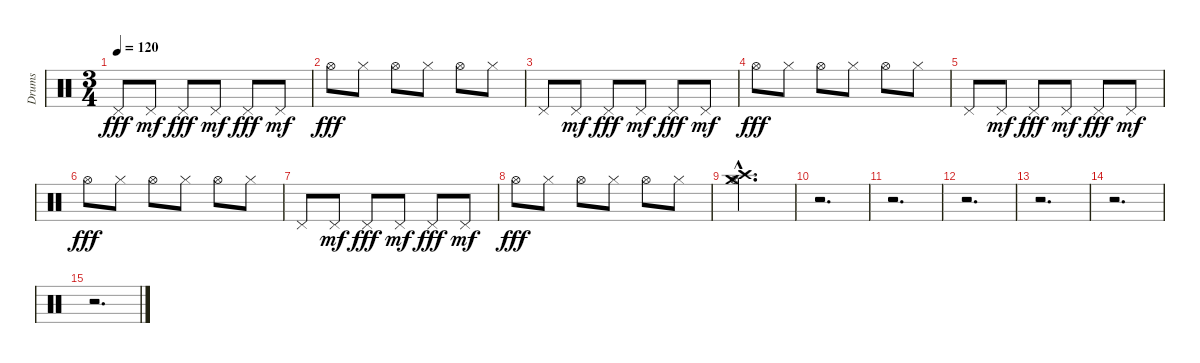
\track ("Drums" "Drums") {instrument percussion}
\staff {score}
\articulation defaults
\ts (3 4)
\tempo 120
\clef neutral
\ks c "Pedal Hi-Hat (hit)".8{dy fff} "Pedal Hi-Hat (hit)".8{dy mf} "Pedal Hi-Hat (hit)".8{dy fff} "Pedal Hi-Hat (hit)".8{dy mf} "Pedal Hi-Hat (hit)".8{dy fff} "Pedal Hi-Hat (hit)".8{dy mf}
|
"Hi-Hat (open)".8{dy fff} "Hi-Hat (closed)".8 "Hi-Hat (open)".8 "Hi-Hat (closed)".8 "Hi-Hat (open)".8 "Hi-Hat (closed)".8 |
"Pedal Hi-Hat (hit)".8 "Pedal Hi-Hat (hit)".8{dy mf} "Pedal Hi-Hat (hit)".8{dy fff} "Pedal Hi-Hat (hit)".8{dy mf} "Pedal Hi-Hat (hit)".8{dy fff} "Pedal Hi-Hat (hit)".8{dy mf} |
"Hi-Hat (open)".8{dy fff} "Hi-Hat (closed)".8 "Hi-Hat (open)".8 "Hi-Hat (closed)".8 "Hi-Hat (open)".8 "Hi-Hat (closed)".8 |
"Pedal Hi-Hat (hit)".8 "Pedal Hi-Hat (hit)".8{dy mf} "Pedal Hi-Hat (hit)".8{dy fff} "Pedal Hi-Hat (hit)".8{dy mf} "Pedal Hi-Hat (hit)".8{dy fff} "Pedal Hi-Hat (hit)".8{dy mf} |
"Hi-Hat (open)".8{dy fff} "Hi-Hat (closed)".8 "Hi-Hat (open)".8 "Hi-Hat (closed)".8 "Hi-Hat (open)".8 "Hi-Hat (closed)".8 |
"Pedal Hi-Hat (hit)".8 "Pedal Hi-Hat (hit)".8{dy mf} "Pedal Hi-Hat (hit)".8{dy fff} "Pedal Hi-Hat (hit)".8{dy mf} "Pedal Hi-Hat (hit)".8{dy fff} "Pedal Hi-Hat (hit)".8{dy mf} |
"Hi-Hat (open)".8{dy fff} "Hi-Hat (closed)".8 "Hi-Hat (open)".8 "Hi-Hat (closed)".8 "Hi-Hat (open)".8 "Hi-Hat (closed)".8 |
("Crash high (hit)"{hac} "Crash medium (hit)"{hac} "Hi-Hat (open)"{hac}).2{d} |
r.2{d} |
r.2{d} |
r.2{d} |
r.2{d} |
r.2{d} |
r.2{d}
